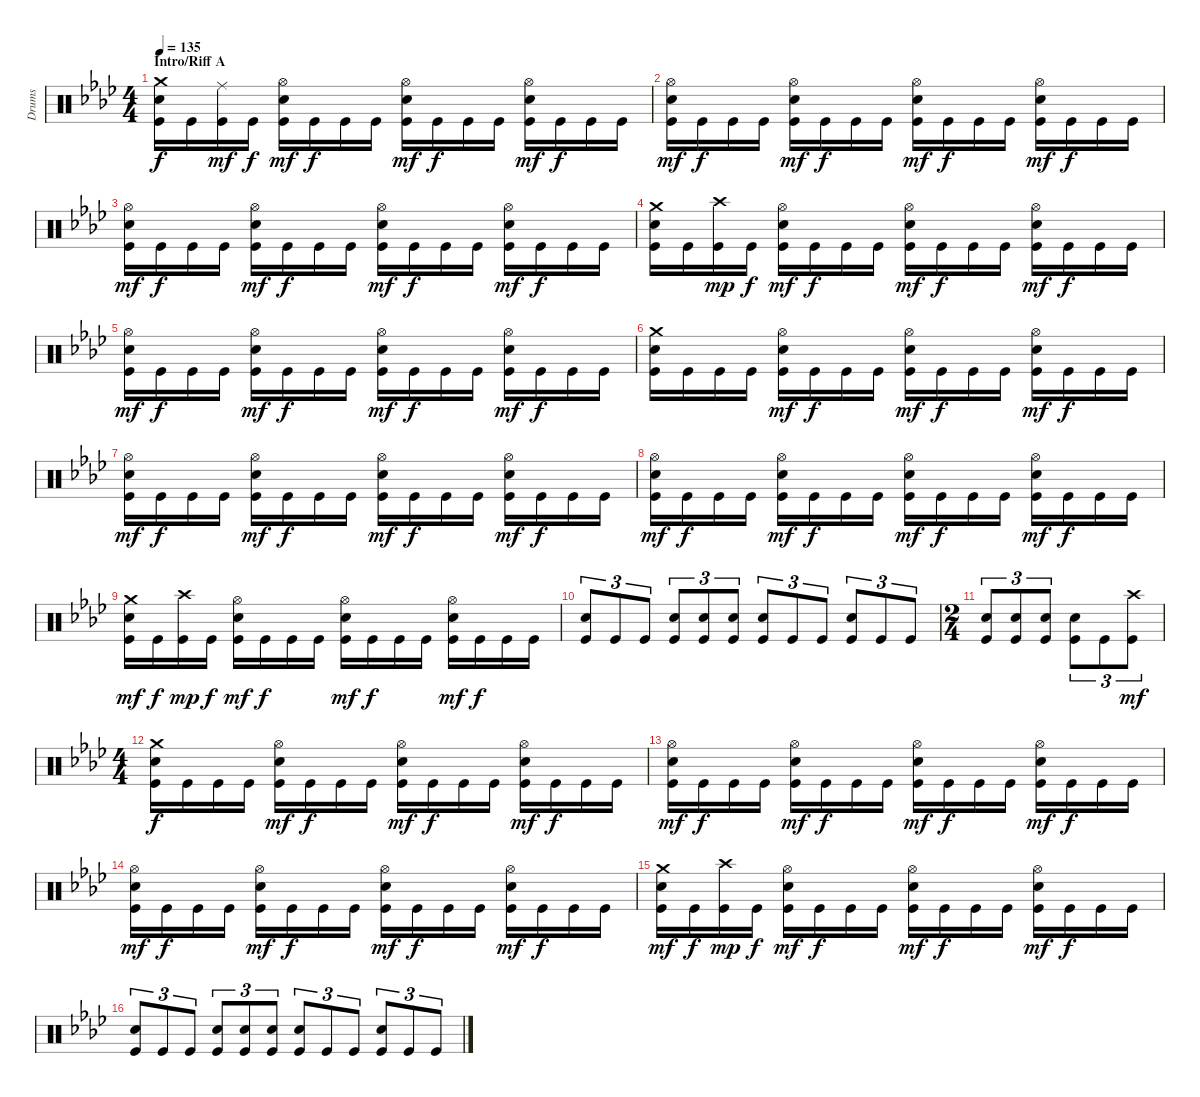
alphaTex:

\track ("Drums" "Drums") {instrument percussion}
\staff {score}
\articulation defaults
\ts (4 4)
\section ("" "Intro/Riff A")
\tempo 135
\clef neutral
\ks fminor
("Crash medium (hit)" "Snare (hit) 2" "Kick (hit)").16{dy f} "Kick (hit)".16 ("Ride (middle)" "Kick (hit)").16{dy mf} "Kick (hit)".16{dy f} ("Hi-Hat (open)" "Snare (hit) 2" "Kick (hit)").16{dy mf} "Kick (hit)".16{dy f} "Kick (hit)".16 "Kick (hit)".16 ("Hi-Hat (open)" "Snare (hit) 2" "Kick (hit)").16{dy mf} "Kick (hit)".16{dy f} "Kick (hit)".16 "Kick (hit)".16 ("Hi-Hat (open)" "Snare (hit) 2" "Kick (hit)").16{dy mf} "Kick (hit)".16{dy f} "Kick (hit)".16 "Kick (hit)".16 |
("Hi-Hat (open)" "Snare (hit) 2" "Kick (hit)").16{dy mf} "Kick (hit)".16{dy f} "Kick (hit)".16 "Kick (hit)".16 ("Hi-Hat (open)" "Snare (hit) 2" "Kick (hit)").16{dy mf} "Kick (hit)".16{dy f} "Kick (hit)".16 "Kick (hit)".16 ("Hi-Hat (open)" "Snare (hit) 2" "Kick (hit)").16{dy mf} "Kick (hit)".16{dy f} "Kick (hit)".16 "Kick (hit)".16 ("Hi-Hat (open)" "Snare (hit) 2" "Kick (hit)").16{dy mf} "Kick (hit)".16{dy f} "Kick (hit)".16 "Kick (hit)".16 |
("Hi-Hat (open)" "Snare (hit) 2" "Kick (hit)").16{dy mf} "Kick (hit)".16{dy f} "Kick (hit)".16 "Kick (hit)".16 ("Hi-Hat (open)" "Snare (hit) 2" "Kick (hit)").16{dy mf} "Kick (hit)".16{dy f} "Kick (hit)".16 "Kick (hit)".16 ("Hi-Hat (open)" "Snare (hit) 2" "Kick (hit)").16{dy mf} "Kick (hit)".16{dy f} "Kick (hit)".16 "Kick (hit)".16 ("Hi-Hat (open)" "Snare (hit) 2" "Kick (hit)").16{dy mf} "Kick (hit)".16{dy f} "Kick (hit)".16 "Kick (hit)".16 |
("Crash medium (hit)" "Snare (hit) 2" "Kick (hit)").16 "Kick (hit)".16 ("Crash high (hit)" "Kick (hit)").16{dy mp} "Kick (hit)".16{dy f} ("Hi-Hat (open)" "Snare (hit) 2" "Kick (hit)").16{dy mf} "Kick (hit)".16{dy f} "Kick (hit)".16 "Kick (hit)".16 ("Hi-Hat (open)" "Snare (hit) 2" "Kick (hit)").16{dy mf} "Kick (hit)".16{dy f} "Kick (hit)".16 "Kick (hit)".16 ("Hi-Hat (open)" "Snare (hit) 2" "Kick (hit)").16{dy mf} "Kick (hit)".16{dy f} "Kick (hit)".16 "Kick (hit)".16 |
("Hi-Hat (open)" "Snare (hit) 2" "Kick (hit)").16{dy mf} "Kick (hit)".16{dy f} "Kick (hit)".16 "Kick (hit)".16 ("Hi-Hat (open)" "Snare (hit) 2" "Kick (hit)").16{dy mf} "Kick (hit)".16{dy f} "Kick (hit)".16 "Kick (hit)".16 ("Hi-Hat (open)" "Snare (hit) 2" "Kick (hit)").16{dy mf} "Kick (hit)".16{dy f} "Kick (hit)".16 "Kick (hit)".16 ("Hi-Hat (open)" "Snare (hit) 2" "Kick (hit)").16{dy mf} "Kick (hit)".16{dy f} "Kick (hit)".16 "Kick (hit)".16 |
("Crash medium (hit)" "Snare (hit) 2" "Kick (hit)").16 "Kick (hit)".16 "Kick (hit)".16 "Kick (hit)".16 ("Hi-Hat (open)" "Snare (hit) 2" "Kick (hit)").16{dy mf} "Kick (hit)".16{dy f} "Kick (hit)".16 "Kick (hit)".16 ("Hi-Hat (open)" "Snare (hit) 2" "Kick (hit)").16{dy mf} "Kick (hit)".16{dy f} "Kick (hit)".16 "Kick (hit)".16 ("Hi-Hat (open)" "Snare (hit) 2" "Kick (hit)").16{dy mf} "Kick (hit)".16{dy f} "Kick (hit)".16 "Kick (hit)".16 |
("Hi-Hat (open)" "Snare (hit) 2" "Kick (hit)").16{dy mf} "Kick (hit)".16{dy f} "Kick (hit)".16 "Kick (hit)".16 ("Hi-Hat (open)" "Snare (hit) 2" "Kick (hit)").16{dy mf} "Kick (hit)".16{dy f} "Kick (hit)".16 "Kick (hit)".16 ("Hi-Hat (open)" "Snare (hit) 2" "Kick (hit)").16{dy mf} "Kick (hit)".16{dy f} "Kick (hit)".16 "Kick (hit)".16 ("Hi-Hat (open)" "Snare (hit) 2" "Kick (hit)").16{dy mf} "Kick (hit)".16{dy f} "Kick (hit)".16 "Kick (hit)".16 |
("Hi-Hat (open)" "Snare (hit) 2" "Kick (hit)").16{dy mf} "Kick (hit)".16{dy f} "Kick (hit)".16 "Kick (hit)".16 ("Hi-Hat (open)" "Snare (hit) 2" "Kick (hit)").16{dy mf} "Kick (hit)".16{dy f} "Kick (hit)".16 "Kick (hit)".16 ("Hi-Hat (open)" "Snare (hit) 2" "Kick (hit)").16{dy mf} "Kick (hit)".16{dy f} "Kick (hit)".16 "Kick (hit)".16 ("Hi-Hat (open)" "Snare (hit) 2" "Kick (hit)").16{dy mf} "Kick (hit)".16{dy f} "Kick (hit)".16 "Kick (hit)".16 |
("Crash medium (hit)" "Snare (hit) 2" "Kick (hit)").16{dy mf} "Kick (hit)".16{dy f} ("Crash high (hit)" "Kick (hit)").16{dy mp} "Kick (hit)".16{dy f} ("Hi-Hat (open)" "Snare (hit) 2" "Kick (hit)").16{dy mf} "Kick (hit)".16{dy f} "Kick (hit)".16 "Kick (hit)".16 ("Hi-Hat (open)" "Snare (hit) 2" "Kick (hit)").16{dy mf} "Kick (hit)".16{dy f} "Kick (hit)".16 "Kick (hit)".16 ("Hi-Hat (open)" "Snare (hit) 2" "Kick (hit)").16{dy mf} "Kick (hit)".16{dy f} "Kick (hit)".16 "Kick (hit)".16 |
("Snare (hit) 2" "Kick (hit)").8{tu (3 2)} "Kick (hit)".8{tu (3 2)} "Kick (hit)".8{tu (3 2)} ("Snare (hit) 2" "Kick (hit)").8{tu (3 2)} ("Snare (hit) 2" "Kick (hit)").8{tu (3 2)} ("Snare (hit) 2" "Kick (hit)").8{tu (3 2)} ("Snare (hit) 2" "Kick (hit)").8{tu (3 2)} "Kick (hit)".8{tu (3 2)} "Kick (hit)".8{tu (3 2)} ("Snare (hit) 2" "Kick (hit)").8{tu (3 2)} "Kick (hit)".8{tu (3 2)} "Kick (hit)".8{tu (3 2)} |
\ts (2 4)
("Snare (hit) 2" "Kick (hit)").8{tu (3 2)} ("Snare (hit) 2" "Kick (hit)").8{tu (3 2)} ("Snare (hit) 2" "Kick (hit)").8{tu (3 2)} ("Snare (hit) 2" "Kick (hit)").8{tu (3 2)} "Kick (hit)".8{tu (3 2)} ("Crash high (hit)" "Kick (hit)").8{tu (3 2) dy mf} |
\ts (4 4)
("Crash medium (hit)" "Snare (hit) 2" "Kick (hit)").16{dy f} "Kick (hit)".16 "Kick (hit)".16 "Kick (hit)".16 ("Hi-Hat (open)" "Snare (hit) 2" "Kick (hit)").16{dy mf} "Kick (hit)".16{dy f} "Kick (hit)".16 "Kick (hit)".16 ("Hi-Hat (open)" "Snare (hit) 2" "Kick (hit)").16{dy mf} "Kick (hit)".16{dy f} "Kick (hit)".16 "Kick (hit)".16 ("Hi-Hat (open)" "Snare (hit) 2" "Kick (hit)").16{dy mf} "Kick (hit)".16{dy f} "Kick (hit)".16 "Kick (hit)".16 |
("Hi-Hat (open)" "Snare (hit) 2" "Kick (hit)").16{dy mf} "Kick (hit)".16{dy f} "Kick (hit)".16 "Kick (hit)".16 ("Hi-Hat (open)" "Snare (hit) 2" "Kick (hit)").16{dy mf} "Kick (hit)".16{dy f} "Kick (hit)".16 "Kick (hit)".16 ("Hi-Hat (open)" "Snare (hit) 2" "Kick (hit)").16{dy mf} "Kick (hit)".16{dy f} "Kick (hit)".16 "Kick (hit)".16 ("Hi-Hat (open)" "Snare (hit) 2" "Kick (hit)").16{dy mf} "Kick (hit)".16{dy f} "Kick (hit)".16 "Kick (hit)".16 |
("Hi-Hat (open)" "Snare (hit) 2" "Kick (hit)").16{dy mf} "Kick (hit)".16{dy f} "Kick (hit)".16 "Kick (hit)".16 ("Hi-Hat (open)" "Snare (hit) 2" "Kick (hit)").16{dy mf} "Kick (hit)".16{dy f} "Kick (hit)".16 "Kick (hit)".16 ("Hi-Hat (open)" "Snare (hit) 2" "Kick (hit)").16{dy mf} "Kick (hit)".16{dy f} "Kick (hit)".16 "Kick (hit)".16 ("Hi-Hat (open)" "Snare (hit) 2" "Kick (hit)").16{dy mf} "Kick (hit)".16{dy f} "Kick (hit)".16 "Kick (hit)".16 |
("Crash medium (hit)" "Snare (hit) 2" "Kick (hit)").16{dy mf} "Kick (hit)".16{dy f} ("Crash high (hit)" "Kick (hit)").16{dy mp} "Kick (hit)".16{dy f} ("Hi-Hat (open)" "Snare (hit) 2" "Kick (hit)").16{dy mf} "Kick (hit)".16{dy f} "Kick (hit)".16 "Kick (hit)".16 ("Hi-Hat (open)" "Snare (hit) 2" "Kick (hit)").16{dy mf} "Kick (hit)".16{dy f} "Kick (hit)".16 "Kick (hit)".16 ("Hi-Hat (open)" "Snare (hit) 2" "Kick (hit)").16{dy mf} "Kick (hit)".16{dy f} "Kick (hit)".16 "Kick (hit)".16 |
("Snare (hit) 2" "Kick (hit)").8{tu (3 2)} "Kick (hit)".8{tu (3 2)} "Kick (hit)".8{tu (3 2)} ("Snare (hit) 2" "Kick (hit)").8{tu (3 2)} ("Snare (hit) 2" "Kick (hit)").8{tu (3 2)} ("Snare (hit) 2" "Kick (hit)").8{tu (3 2)} ("Snare (hit) 2" "Kick (hit)").8{tu (3 2)} "Kick (hit)".8{tu (3 2)} "Kick (hit)".8{tu (3 2)} ("Snare (hit) 2" "Kick (hit)").8{tu (3 2)} "Kick (hit)".8{tu (3 2)} "Kick (hit)".8{tu (3 2)}
